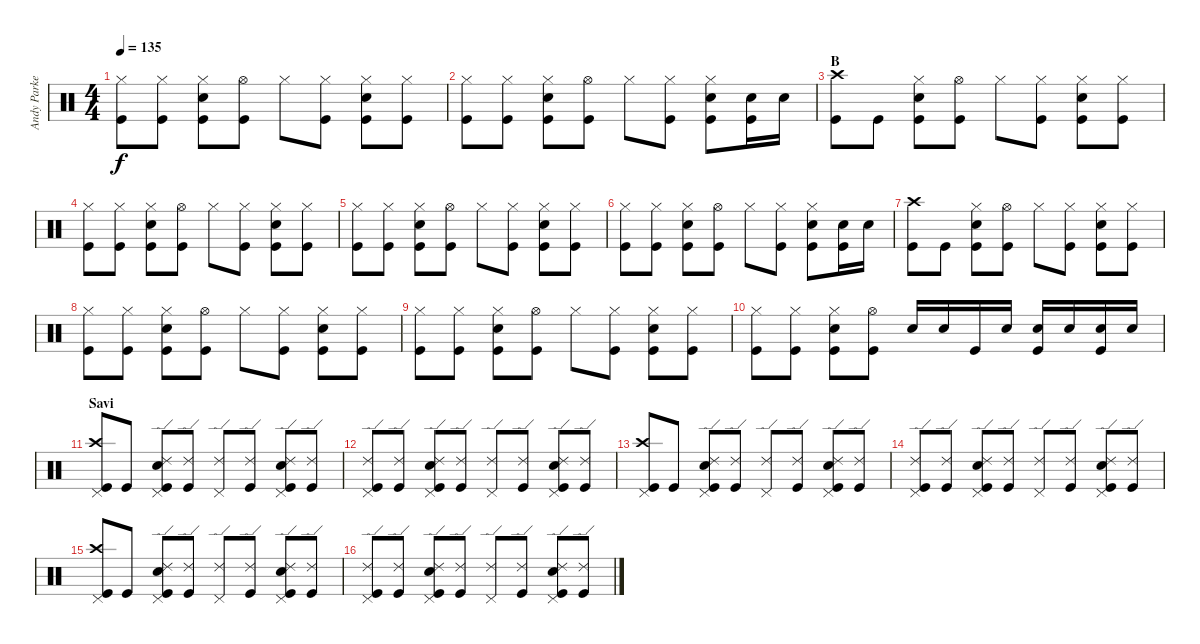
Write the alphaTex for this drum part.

\track ("Andy Parker" "Andy Parke") {instrument percussion}
\staff {score}
\articulation defaults
\ts (4 4)
\tempo 135
\clef neutral
\ks c
("Hi-Hat (closed)" "Kick (hit)").8{dy f} ("Hi-Hat (closed)" "Kick (hit)").8 ("Hi-Hat (closed)" "Snare (hit) 2" "Kick (hit)").8 ("Hi-Hat (open)" "Kick (hit)").8 "Hi-Hat (closed)".8 ("Hi-Hat (closed)" "Kick (hit)").8 ("Hi-Hat (closed)" "Snare (hit) 2" "Kick (hit)").8 ("Hi-Hat (closed)" "Kick (hit)").8 |
("Hi-Hat (closed)" "Kick (hit)").8 ("Hi-Hat (closed)" "Kick (hit)").8 ("Hi-Hat (closed)" "Snare (hit) 2" "Kick (hit)").8 ("Hi-Hat (open)" "Kick (hit)").8 "Hi-Hat (closed)".8 ("Hi-Hat (closed)" "Kick (hit)").8 ("Hi-Hat (closed)" "Snare (hit) 2" "Kick (hit)").8 ("Snare (hit) 2" "Kick (hit)").16 "Snare (hit) 2".16 |
\section ("" "B")
("Crash high (hit)" "Kick (hit)").8 "Kick (hit)".8 ("Hi-Hat (closed)" "Snare (hit) 2" "Kick (hit)").8 ("Hi-Hat (open)" "Kick (hit)").8 "Hi-Hat (closed)".8 ("Hi-Hat (closed)" "Kick (hit)").8 ("Hi-Hat (closed)" "Snare (hit) 2" "Kick (hit)").8 ("Hi-Hat (closed)" "Kick (hit)").8 |
("Hi-Hat (closed)" "Kick (hit)").8 ("Hi-Hat (closed)" "Kick (hit)").8 ("Hi-Hat (closed)" "Snare (hit) 2" "Kick (hit)").8 ("Hi-Hat (open)" "Kick (hit)").8 "Hi-Hat (closed)".8 ("Hi-Hat (closed)" "Kick (hit)").8 ("Hi-Hat (closed)" "Snare (hit) 2" "Kick (hit)").8 ("Hi-Hat (closed)" "Kick (hit)").8 |
("Hi-Hat (closed)" "Kick (hit)").8 ("Hi-Hat (closed)" "Kick (hit)").8 ("Hi-Hat (closed)" "Snare (hit) 2" "Kick (hit)").8 ("Hi-Hat (open)" "Kick (hit)").8 "Hi-Hat (closed)".8 ("Hi-Hat (closed)" "Kick (hit)").8 ("Hi-Hat (closed)" "Snare (hit) 2" "Kick (hit)").8 ("Hi-Hat (closed)" "Kick (hit)").8 |
("Hi-Hat (closed)" "Kick (hit)").8 ("Hi-Hat (closed)" "Kick (hit)").8 ("Hi-Hat (closed)" "Snare (hit) 2" "Kick (hit)").8 ("Hi-Hat (open)" "Kick (hit)").8 "Hi-Hat (closed)".8 ("Hi-Hat (closed)" "Kick (hit)").8 ("Hi-Hat (closed)" "Snare (hit) 2" "Kick (hit)").8 ("Snare (hit) 2" "Kick (hit)").16 "Snare (hit) 2".16 |
("Crash high (hit)" "Kick (hit)").8 "Kick (hit)".8 ("Hi-Hat (closed)" "Snare (hit) 2" "Kick (hit)").8 ("Hi-Hat (open)" "Kick (hit)").8 "Hi-Hat (closed)".8 ("Hi-Hat (closed)" "Kick (hit)").8 ("Hi-Hat (closed)" "Snare (hit) 2" "Kick (hit)").8 ("Hi-Hat (closed)" "Kick (hit)").8 |
("Hi-Hat (closed)" "Kick (hit)").8 ("Hi-Hat (closed)" "Kick (hit)").8 ("Hi-Hat (closed)" "Snare (hit) 2" "Kick (hit)").8 ("Hi-Hat (open)" "Kick (hit)").8 "Hi-Hat (closed)".8 ("Hi-Hat (closed)" "Kick (hit)").8 ("Hi-Hat (closed)" "Snare (hit) 2" "Kick (hit)").8 ("Hi-Hat (closed)" "Kick (hit)").8 |
("Hi-Hat (closed)" "Kick (hit)").8 ("Hi-Hat (closed)" "Kick (hit)").8 ("Hi-Hat (closed)" "Snare (hit) 2" "Kick (hit)").8 ("Hi-Hat (open)" "Kick (hit)").8 "Hi-Hat (closed)".8 ("Hi-Hat (closed)" "Kick (hit)").8 ("Hi-Hat (closed)" "Snare (hit) 2" "Kick (hit)").8 ("Hi-Hat (closed)" "Kick (hit)").8 |
("Hi-Hat (closed)" "Kick (hit)").8 ("Hi-Hat (closed)" "Kick (hit)").8 ("Hi-Hat (closed)" "Snare (hit) 2" "Kick (hit)").8 ("Hi-Hat (open)" "Kick (hit)").8 "Snare (hit) 2".16 "Snare (hit) 2".16 "Kick (hit)".16 "Snare (hit) 2".16 ("Snare (hit) 2" "Kick (hit)").16 "Snare (hit) 2".16 ("Snare (hit) 2" "Kick (hit)").16 "Snare (hit) 2".16 |
\section ("" "Savi")
("Crash high (hit)" "Pedal Hi-Hat (hit)" "Kick (hit)").8 "Kick (hit)".8 ("Ride (edge) 2" "Snare (hit) 2" "Pedal Hi-Hat (hit)" "Kick (hit)").8 ("Ride (edge) 2" "Kick (hit)").8 ("Ride (edge) 2" "Pedal Hi-Hat (hit)").8 ("Ride (edge) 2" "Kick (hit)").8 ("Ride (edge) 2" "Snare (hit) 2" "Pedal Hi-Hat (hit)" "Kick (hit)").8 ("Ride (edge) 2" "Kick (hit)").8 |
("Ride (edge) 2" "Pedal Hi-Hat (hit)" "Kick (hit)").8 ("Ride (edge) 2" "Kick (hit)").8 ("Ride (edge) 2" "Snare (hit) 2" "Pedal Hi-Hat (hit)" "Kick (hit)").8 ("Ride (edge) 2" "Kick (hit)").8 ("Ride (edge) 2" "Pedal Hi-Hat (hit)").8 ("Ride (edge) 2" "Kick (hit)").8 ("Ride (edge) 2" "Snare (hit) 2" "Pedal Hi-Hat (hit)" "Kick (hit)").8 ("Ride (edge) 2" "Kick (hit)").8 |
("Crash high (hit)" "Pedal Hi-Hat (hit)" "Kick (hit)").8 "Kick (hit)".8 ("Ride (edge) 2" "Snare (hit) 2" "Pedal Hi-Hat (hit)" "Kick (hit)").8 ("Ride (edge) 2" "Kick (hit)").8 ("Ride (edge) 2" "Pedal Hi-Hat (hit)").8 ("Ride (edge) 2" "Kick (hit)").8 ("Ride (edge) 2" "Snare (hit) 2" "Pedal Hi-Hat (hit)" "Kick (hit)").8 ("Ride (edge) 2" "Kick (hit)").8 |
("Ride (edge) 2" "Pedal Hi-Hat (hit)" "Kick (hit)").8 ("Ride (edge) 2" "Kick (hit)").8 ("Ride (edge) 2" "Snare (hit) 2" "Pedal Hi-Hat (hit)" "Kick (hit)").8 ("Ride (edge) 2" "Kick (hit)").8 ("Ride (edge) 2" "Pedal Hi-Hat (hit)").8 ("Ride (edge) 2" "Kick (hit)").8 ("Ride (edge) 2" "Snare (hit) 2" "Pedal Hi-Hat (hit)" "Kick (hit)").8 ("Ride (edge) 2" "Kick (hit)").8 |
("Crash high (hit)" "Pedal Hi-Hat (hit)" "Kick (hit)").8 "Kick (hit)".8 ("Ride (edge) 2" "Snare (hit) 2" "Pedal Hi-Hat (hit)" "Kick (hit)").8 ("Ride (edge) 2" "Kick (hit)").8 ("Ride (edge) 2" "Pedal Hi-Hat (hit)").8 ("Ride (edge) 2" "Kick (hit)").8 ("Ride (edge) 2" "Snare (hit) 2" "Pedal Hi-Hat (hit)" "Kick (hit)").8 ("Ride (edge) 2" "Kick (hit)").8 |
("Ride (edge) 2" "Pedal Hi-Hat (hit)" "Kick (hit)").8 ("Ride (edge) 2" "Kick (hit)").8 ("Ride (edge) 2" "Snare (hit) 2" "Pedal Hi-Hat (hit)" "Kick (hit)").8 ("Ride (edge) 2" "Kick (hit)").8 ("Ride (edge) 2" "Pedal Hi-Hat (hit)").8 ("Ride (edge) 2" "Kick (hit)").8 ("Ride (edge) 2" "Snare (hit) 2" "Pedal Hi-Hat (hit)" "Kick (hit)").8 ("Ride (edge) 2" "Kick (hit)").8
